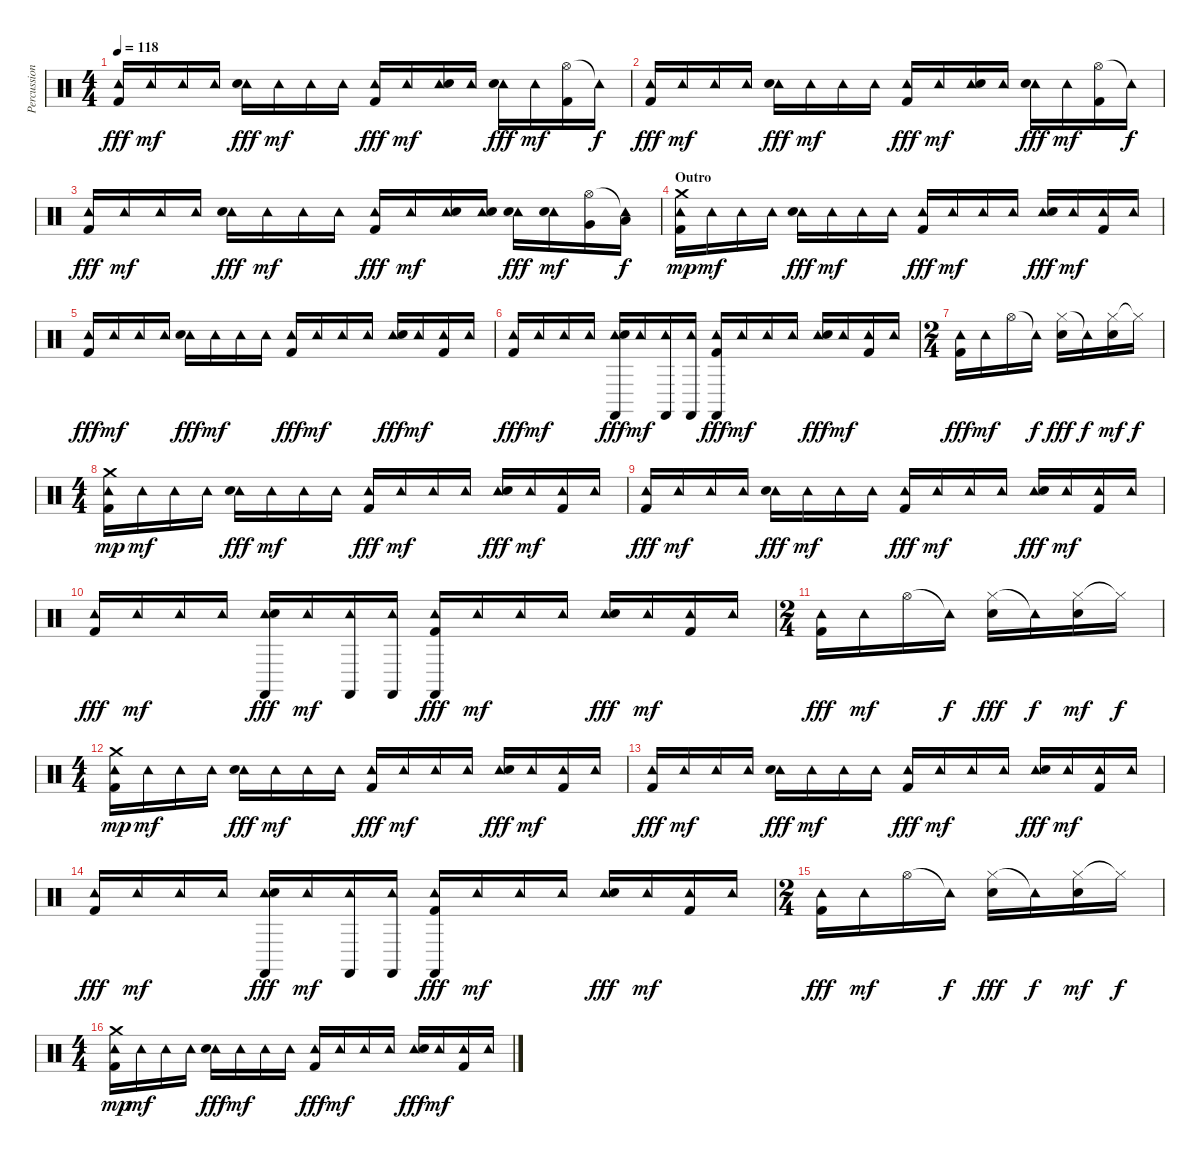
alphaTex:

\track ("Percussion" "Percussion") {instrument percussion}
\staff {score}
\articulation defaults
\ts (4 4)
\tempo 118
\clef neutral
\ks c
("Tambourine (hit)" "Kick (hit) 2").16{dy fff} "Tambourine (hit)".16{dy mf} "Tambourine (hit)".16 "Tambourine (hit)".16 ("Tambourine (hit)" "Electric Snare (hit)").16{dy fff} "Tambourine (hit)".16{dy mf} "Tambourine (hit)".16 "Tambourine (hit)".16 ("Tambourine (hit)" "Kick (hit) 2").16{dy fff} "Tambourine (hit)".16{dy mf} ("Tambourine (hit)" "Electric Snare (hit)").16 "Tambourine (hit)".16 ("Tambourine (hit)" "Electric Snare (hit)").16{dy fff} "Tambourine (hit)".16{dy mf} ("Hi-Hat (open)" "Kick (hit) 2").16 "Tambourine (hit)"{t}.16{dy f} |
("Tambourine (hit)" "Kick (hit) 2").16{dy fff} "Tambourine (hit)".16{dy mf} "Tambourine (hit)".16 "Tambourine (hit)".16 ("Tambourine (hit)" "Electric Snare (hit)").16{dy fff} "Tambourine (hit)".16{dy mf} "Tambourine (hit)".16 "Tambourine (hit)".16 ("Tambourine (hit)" "Kick (hit) 2").16{dy fff} "Tambourine (hit)".16{dy mf} ("Tambourine (hit)" "Electric Snare (hit)").16 "Tambourine (hit)".16 ("Tambourine (hit)" "Electric Snare (hit)").16{dy fff} "Tambourine (hit)".16{dy mf} ("Hi-Hat (open)" "Kick (hit) 2").16 "Tambourine (hit)"{t}.16{dy f} |
("Tambourine (hit)" "Kick (hit) 2").16{dy fff} "Tambourine (hit)".16{dy mf} "Tambourine (hit)".16 "Tambourine (hit)".16 ("Tambourine (hit)" "Electric Snare (hit)").16{dy fff} "Tambourine (hit)".16{dy mf} "Tambourine (hit)".16 "Tambourine (hit)".16 ("Tambourine (hit)" "Kick (hit) 2").16{dy fff} "Tambourine (hit)".16{dy mf} ("Tambourine (hit)" "Electric Snare (hit)").16 ("Tambourine (hit)" "Electric Snare (hit)").16 ("Tambourine (hit)" "Electric Snare (hit)").16{dy fff} ("Tambourine (hit)" "Electric Snare (hit)").16{dy mf} ("Hi-Hat (open)" "Very Low Tom (hit)").16 ("Tambourine (hit)"{t} "Low Floor Tom (hit)").16{dy f} |
\section ("" "Outro")
("Tambourine (hit)" "Kick (hit) 2" "Crash medium (hit)").16{dy mp} "Tambourine (hit)".16{dy mf} "Tambourine (hit)".16 "Tambourine (hit)".16 ("Tambourine (hit)" "Electric Snare (hit)").16{dy fff} "Tambourine (hit)".16{dy mf} "Tambourine (hit)".16 "Tambourine (hit)".16 ("Tambourine (hit)" "Kick (hit) 2").16{dy fff} "Tambourine (hit)".16{dy mf} "Tambourine (hit)".16 "Tambourine (hit)".16 ("Tambourine (hit)" "Electric Snare (hit)").16{dy fff} "Tambourine (hit)".16{dy mf} ("Tambourine (hit)" "Kick (hit) 2").16 "Tambourine (hit)".16 |
("Tambourine (hit)" "Kick (hit) 2").16{dy fff} "Tambourine (hit)".16{dy mf} "Tambourine (hit)".16 "Tambourine (hit)".16 ("Tambourine (hit)" "Electric Snare (hit)").16{dy fff} "Tambourine (hit)".16{dy mf volume 15} "Tambourine (hit)".16 "Tambourine (hit)".16 ("Tambourine (hit)" "Kick (hit) 2").16{dy fff} "Tambourine (hit)".16{dy mf} "Tambourine (hit)".16 "Tambourine (hit)".16 ("Tambourine (hit)" "Electric Snare (hit)").16{dy fff} "Tambourine (hit)".16{dy mf} ("Tambourine (hit)" "Kick (hit) 2").16 "Tambourine (hit)".16 |
("Tambourine (hit)" "Kick (hit) 2").16{dy fff} "Tambourine (hit)".16{dy mf} "Tambourine (hit)".16 "Tambourine (hit)".16 ("Tambourine (hit)" "Electric Snare (hit)" "Castanets (hit)").16{dy fff} "Tambourine (hit)".16{dy mf} ("Tambourine (hit)" "Castanets (hit)").16 ("Tambourine (hit)" "Castanets (hit)").16 ("Tambourine (hit)" "Kick (hit) 2" "Castanets (hit)").16{dy fff} "Tambourine (hit)".16{dy mf} "Tambourine (hit)".16 "Tambourine (hit)".16 ("Tambourine (hit)" "Electric Snare (hit)").16{dy fff} "Tambourine (hit)".16{dy mf} ("Tambourine (hit)" "Kick (hit) 2").16 "Tambourine (hit)".16 |
\ts (2 4)
("Tambourine (hit)" "Kick (hit) 2").16{dy fff} "Tambourine (hit)".16{dy mf} "Hi-Hat (open)".16 "Tambourine (hit)"{t}.16{dy f} ("Hi-Hat (closed)" "Electric Snare (hit)").16{dy fff} "Tambourine (hit)"{t}.16{dy f} ("Hi-Hat (closed)" "Electric Snare (hit)").16{dy mf} "Hi-Hat (closed)"{t}.16{dy f} |
\ts (4 4)
("Tambourine (hit)" "Kick (hit) 2" "Crash medium (hit)").16{dy mp} "Tambourine (hit)".16{dy mf} "Tambourine (hit)".16 "Tambourine (hit)".16 ("Tambourine (hit)" "Electric Snare (hit)").16{dy fff} "Tambourine (hit)".16{dy mf} "Tambourine (hit)".16 "Tambourine (hit)".16 ("Tambourine (hit)" "Kick (hit) 2").16{dy fff} "Tambourine (hit)".16{dy mf} "Tambourine (hit)".16 "Tambourine (hit)".16 ("Tambourine (hit)" "Electric Snare (hit)").16{dy fff} "Tambourine (hit)".16{dy mf} ("Tambourine (hit)" "Kick (hit) 2").16 "Tambourine (hit)".16 |
("Tambourine (hit)" "Kick (hit) 2").16{dy fff} "Tambourine (hit)".16{dy mf} "Tambourine (hit)".16 "Tambourine (hit)".16 ("Tambourine (hit)" "Electric Snare (hit)").16{dy fff} "Tambourine (hit)".16{dy mf volume 14} "Tambourine (hit)".16 "Tambourine (hit)".16 ("Tambourine (hit)" "Kick (hit) 2").16{dy fff} "Tambourine (hit)".16{dy mf} "Tambourine (hit)".16 "Tambourine (hit)".16 ("Tambourine (hit)" "Electric Snare (hit)").16{dy fff} "Tambourine (hit)".16{dy mf} ("Tambourine (hit)" "Kick (hit) 2").16 "Tambourine (hit)".16 |
("Tambourine (hit)" "Kick (hit) 2").16{dy fff} "Tambourine (hit)".16{dy mf} "Tambourine (hit)".16 "Tambourine (hit)".16 ("Tambourine (hit)" "Electric Snare (hit)" "Castanets (hit)").16{dy fff} "Tambourine (hit)".16{dy mf} ("Tambourine (hit)" "Castanets (hit)").16 ("Tambourine (hit)" "Castanets (hit)").16 ("Tambourine (hit)" "Kick (hit) 2" "Castanets (hit)").16{dy fff} "Tambourine (hit)".16{dy mf} "Tambourine (hit)".16 "Tambourine (hit)".16 ("Tambourine (hit)" "Electric Snare (hit)").16{dy fff} "Tambourine (hit)".16{dy mf} ("Tambourine (hit)" "Kick (hit) 2").16 "Tambourine (hit)".16 |
\ts (2 4)
("Tambourine (hit)" "Kick (hit) 2").16{dy fff} "Tambourine (hit)".16{dy mf} "Hi-Hat (open)".16 "Tambourine (hit)"{t}.16{dy f} ("Hi-Hat (closed)" "Electric Snare (hit)").16{dy fff} "Tambourine (hit)"{t}.16{dy f} ("Hi-Hat (closed)" "Electric Snare (hit)").16{dy mf} "Hi-Hat (closed)"{t}.16{dy f} |
\ts (4 4)
("Tambourine (hit)" "Kick (hit) 2" "Crash medium (hit)").16{dy mp} "Tambourine (hit)".16{dy mf} "Tambourine (hit)".16 "Tambourine (hit)".16 ("Tambourine (hit)" "Electric Snare (hit)").16{dy fff} "Tambourine (hit)".16{dy mf} "Tambourine (hit)".16 "Tambourine (hit)".16 ("Tambourine (hit)" "Kick (hit) 2").16{dy fff} "Tambourine (hit)".16{dy mf} "Tambourine (hit)".16 "Tambourine (hit)".16 ("Tambourine (hit)" "Electric Snare (hit)").16{dy fff} "Tambourine (hit)".16{dy mf} ("Tambourine (hit)" "Kick (hit) 2").16 "Tambourine (hit)".16 |
("Tambourine (hit)" "Kick (hit) 2").16{dy fff} "Tambourine (hit)".16{dy mf} "Tambourine (hit)".16 "Tambourine (hit)".16 ("Tambourine (hit)" "Electric Snare (hit)").16{dy fff} "Tambourine (hit)".16{dy mf volume 13} "Tambourine (hit)".16 "Tambourine (hit)".16 ("Tambourine (hit)" "Kick (hit) 2").16{dy fff} "Tambourine (hit)".16{dy mf} "Tambourine (hit)".16 "Tambourine (hit)".16 ("Tambourine (hit)" "Electric Snare (hit)").16{dy fff} "Tambourine (hit)".16{dy mf} ("Tambourine (hit)" "Kick (hit) 2").16 "Tambourine (hit)".16 |
("Tambourine (hit)" "Kick (hit) 2").16{dy fff} "Tambourine (hit)".16{dy mf} "Tambourine (hit)".16 "Tambourine (hit)".16 ("Tambourine (hit)" "Electric Snare (hit)" "Castanets (hit)").16{dy fff} "Tambourine (hit)".16{dy mf} ("Tambourine (hit)" "Castanets (hit)").16 ("Tambourine (hit)" "Castanets (hit)").16 ("Tambourine (hit)" "Kick (hit) 2" "Castanets (hit)").16{dy fff} "Tambourine (hit)".16{dy mf} "Tambourine (hit)".16 "Tambourine (hit)".16 ("Tambourine (hit)" "Electric Snare (hit)").16{dy fff} "Tambourine (hit)".16{dy mf} ("Tambourine (hit)" "Kick (hit) 2").16 "Tambourine (hit)".16 |
\ts (2 4)
("Tambourine (hit)" "Kick (hit) 2").16{dy fff} "Tambourine (hit)".16{dy mf} "Hi-Hat (open)".16 "Tambourine (hit)"{t}.16{dy f} ("Hi-Hat (closed)" "Electric Snare (hit)").16{dy fff} "Tambourine (hit)"{t}.16{dy f} ("Hi-Hat (closed)" "Electric Snare (hit)").16{dy mf} "Hi-Hat (closed)"{t}.16{dy f} |
\ts (4 4)
("Tambourine (hit)" "Kick (hit) 2" "Crash medium (hit)").16{dy mp} "Tambourine (hit)".16{dy mf} "Tambourine (hit)".16 "Tambourine (hit)".16 ("Tambourine (hit)" "Electric Snare (hit)").16{dy fff} "Tambourine (hit)".16{dy mf} "Tambourine (hit)".16 "Tambourine (hit)".16 ("Tambourine (hit)" "Kick (hit) 2").16{dy fff} "Tambourine (hit)".16{dy mf} "Tambourine (hit)".16 "Tambourine (hit)".16 ("Tambourine (hit)" "Electric Snare (hit)").16{dy fff} "Tambourine (hit)".16{dy mf} ("Tambourine (hit)" "Kick (hit) 2").16 "Tambourine (hit)".16
